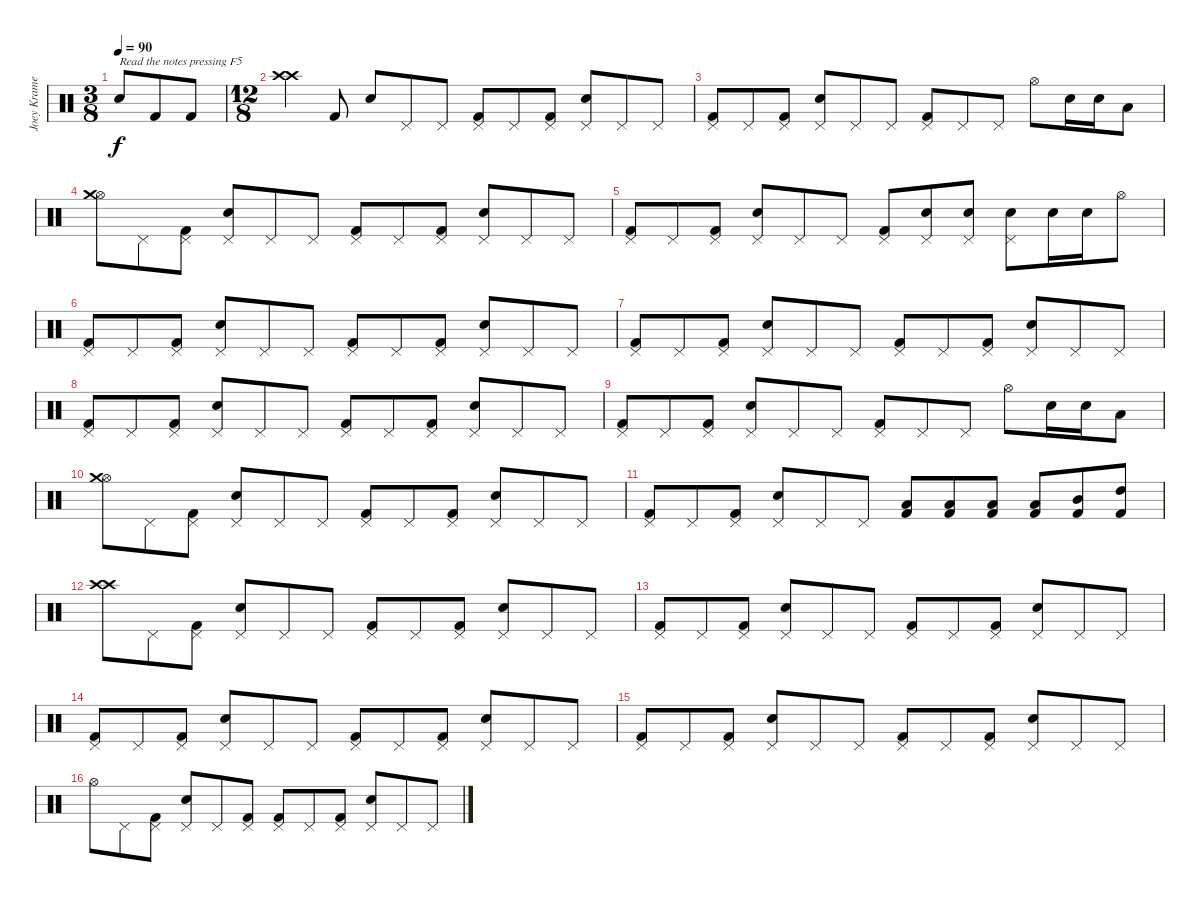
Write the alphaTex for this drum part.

\track ("Joey Kramer" "Joey Krame") {instrument percussion}
\staff {score}
\articulation defaults
\ts (3 8)
\tempo 90
\clef neutral
\ks c "Snare (hit) 2".8{txt "Read the notes pressing F5" dy f} "Kick (hit) 2".8 "Kick (hit) 2".8
|
\ts (12 8)
("Crash high (hit)" "Crash high (hit)").4 "Kick (hit) 2".8 "Snare (hit) 2".8 "Pedal Hi-Hat (hit)".8 "Pedal Hi-Hat (hit)".8 ("Pedal Hi-Hat (hit)" "Kick (hit) 2").8 "Pedal Hi-Hat (hit)".8 ("Pedal Hi-Hat (hit)" "Kick (hit) 2").8 ("Pedal Hi-Hat (hit)" "Snare (hit) 2").8 "Pedal Hi-Hat (hit)".8 "Pedal Hi-Hat (hit)".8 |
("Pedal Hi-Hat (hit)" "Kick (hit) 2").8 "Pedal Hi-Hat (hit)".8 ("Pedal Hi-Hat (hit)" "Kick (hit) 2").8 ("Pedal Hi-Hat (hit)" "Snare (hit) 2").8 "Pedal Hi-Hat (hit)".8 "Pedal Hi-Hat (hit)".8 ("Pedal Hi-Hat (hit)" "Kick (hit) 2").8 "Pedal Hi-Hat (hit)".8 "Pedal Hi-Hat (hit)".8 "Hi-Hat (open)".8 "Electric Snare (hit)".16 "Electric Snare (hit)".16 "Low Tom (hit)".8 |
("Hi-Hat (open)" "Crash medium (hit)").8 "Pedal Hi-Hat (hit)".8 ("Pedal Hi-Hat (hit)" "Kick (hit) 2").8 ("Pedal Hi-Hat (hit)" "Snare (hit) 2").8 "Pedal Hi-Hat (hit)".8 "Pedal Hi-Hat (hit)".8 ("Pedal Hi-Hat (hit)" "Kick (hit) 2").8 "Pedal Hi-Hat (hit)".8 ("Pedal Hi-Hat (hit)" "Kick (hit) 2").8 ("Pedal Hi-Hat (hit)" "Snare (hit) 2").8 "Pedal Hi-Hat (hit)".8 "Pedal Hi-Hat (hit)".8 |
("Pedal Hi-Hat (hit)" "Kick (hit) 2").8 "Pedal Hi-Hat (hit)".8 ("Pedal Hi-Hat (hit)" "Kick (hit) 2").8 ("Pedal Hi-Hat (hit)" "Snare (hit) 2").8 "Pedal Hi-Hat (hit)".8 "Pedal Hi-Hat (hit)".8 ("Pedal Hi-Hat (hit)" "Kick (hit) 2").8 ("Pedal Hi-Hat (hit)" "Snare (hit) 2").8 ("Pedal Hi-Hat (hit)" "Snare (hit) 2").8 ("Pedal Hi-Hat (hit)" "Snare (hit) 2").8 "Snare (hit) 2".16 "Snare (hit) 2".16 "Hi-Hat (open)".8 |
("Pedal Hi-Hat (hit)" "Kick (hit) 2").8 "Pedal Hi-Hat (hit)".8 ("Pedal Hi-Hat (hit)" "Kick (hit) 2").8 ("Pedal Hi-Hat (hit)" "Snare (hit) 2").8 "Pedal Hi-Hat (hit)".8 "Pedal Hi-Hat (hit)".8 ("Pedal Hi-Hat (hit)" "Kick (hit) 2").8 "Pedal Hi-Hat (hit)".8 ("Pedal Hi-Hat (hit)" "Kick (hit) 2").8 ("Pedal Hi-Hat (hit)" "Snare (hit) 2").8 "Pedal Hi-Hat (hit)".8 "Pedal Hi-Hat (hit)".8 |
("Pedal Hi-Hat (hit)" "Kick (hit) 2").8 "Pedal Hi-Hat (hit)".8 ("Pedal Hi-Hat (hit)" "Kick (hit) 2").8 ("Pedal Hi-Hat (hit)" "Snare (hit) 2").8 "Pedal Hi-Hat (hit)".8 "Pedal Hi-Hat (hit)".8 ("Pedal Hi-Hat (hit)" "Kick (hit) 2").8 "Pedal Hi-Hat (hit)".8 ("Pedal Hi-Hat (hit)" "Kick (hit) 2").8 ("Pedal Hi-Hat (hit)" "Snare (hit) 2").8 "Pedal Hi-Hat (hit)".8 "Pedal Hi-Hat (hit)".8 |
("Pedal Hi-Hat (hit)" "Kick (hit) 2").8 "Pedal Hi-Hat (hit)".8 ("Pedal Hi-Hat (hit)" "Kick (hit) 2").8 ("Pedal Hi-Hat (hit)" "Snare (hit) 2").8 "Pedal Hi-Hat (hit)".8 "Pedal Hi-Hat (hit)".8 ("Pedal Hi-Hat (hit)" "Kick (hit) 2").8 "Pedal Hi-Hat (hit)".8 ("Pedal Hi-Hat (hit)" "Kick (hit) 2").8 ("Pedal Hi-Hat (hit)" "Snare (hit) 2").8 "Pedal Hi-Hat (hit)".8 "Pedal Hi-Hat (hit)".8 |
("Pedal Hi-Hat (hit)" "Kick (hit) 2").8 "Pedal Hi-Hat (hit)".8 ("Pedal Hi-Hat (hit)" "Kick (hit) 2").8 ("Pedal Hi-Hat (hit)" "Snare (hit) 2").8 "Pedal Hi-Hat (hit)".8 "Pedal Hi-Hat (hit)".8 ("Pedal Hi-Hat (hit)" "Kick (hit) 2").8 "Pedal Hi-Hat (hit)".8 "Pedal Hi-Hat (hit)".8 "Hi-Hat (open)".8 "Electric Snare (hit)".16 "Electric Snare (hit)".16 "Low Tom (hit)".8 |
("Hi-Hat (open)" "Crash medium (hit)").8 "Pedal Hi-Hat (hit)".8 ("Pedal Hi-Hat (hit)" "Kick (hit) 2").8 ("Pedal Hi-Hat (hit)" "Snare (hit) 2").8 "Pedal Hi-Hat (hit)".8 "Pedal Hi-Hat (hit)".8 ("Pedal Hi-Hat (hit)" "Kick (hit) 2").8 "Pedal Hi-Hat (hit)".8 ("Pedal Hi-Hat (hit)" "Kick (hit) 2").8 ("Pedal Hi-Hat (hit)" "Snare (hit) 2").8 "Pedal Hi-Hat (hit)".8 "Pedal Hi-Hat (hit)".8 |
("Pedal Hi-Hat (hit)" "Kick (hit) 2").8 "Pedal Hi-Hat (hit)".8 ("Pedal Hi-Hat (hit)" "Kick (hit) 2").8 ("Pedal Hi-Hat (hit)" "Snare (hit) 2").8 "Pedal Hi-Hat (hit)".8 "Pedal Hi-Hat (hit)".8 ("Kick (hit) 2" "Low Tom (hit)").8 ("Kick (hit) 2" "Low Tom (hit)").8 ("Kick (hit) 2" "Low Tom (hit)").8 ("Kick (hit) 2" "Low Tom (hit)").8 ("Kick (hit) 2" "Mid Tom (hit)").8 ("Kick (hit) 2" "High Tom (hit)").8 |
("Crash high (hit)" "Crash high (hit)").8 "Pedal Hi-Hat (hit)".8 ("Pedal Hi-Hat (hit)" "Kick (hit) 2").8 ("Pedal Hi-Hat (hit)" "Snare (hit) 2").8 "Pedal Hi-Hat (hit)".8 "Pedal Hi-Hat (hit)".8 ("Pedal Hi-Hat (hit)" "Kick (hit) 2").8 "Pedal Hi-Hat (hit)".8 ("Pedal Hi-Hat (hit)" "Kick (hit) 2").8 ("Pedal Hi-Hat (hit)" "Snare (hit) 2").8 "Pedal Hi-Hat (hit)".8 "Pedal Hi-Hat (hit)".8 |
("Pedal Hi-Hat (hit)" "Kick (hit) 2").8 "Pedal Hi-Hat (hit)".8 ("Pedal Hi-Hat (hit)" "Kick (hit) 2").8 ("Pedal Hi-Hat (hit)" "Snare (hit) 2").8 "Pedal Hi-Hat (hit)".8 "Pedal Hi-Hat (hit)".8 ("Pedal Hi-Hat (hit)" "Kick (hit) 2").8 "Pedal Hi-Hat (hit)".8 ("Pedal Hi-Hat (hit)" "Kick (hit) 2").8 ("Pedal Hi-Hat (hit)" "Snare (hit) 2").8 "Pedal Hi-Hat (hit)".8 "Pedal Hi-Hat (hit)".8 |
("Pedal Hi-Hat (hit)" "Kick (hit) 2").8 "Pedal Hi-Hat (hit)".8 ("Pedal Hi-Hat (hit)" "Kick (hit) 2").8 ("Pedal Hi-Hat (hit)" "Snare (hit) 2").8 "Pedal Hi-Hat (hit)".8 "Pedal Hi-Hat (hit)".8 ("Pedal Hi-Hat (hit)" "Kick (hit) 2").8 "Pedal Hi-Hat (hit)".8 ("Pedal Hi-Hat (hit)" "Kick (hit) 2").8 ("Pedal Hi-Hat (hit)" "Snare (hit) 2").8 "Pedal Hi-Hat (hit)".8 "Pedal Hi-Hat (hit)".8 |
("Pedal Hi-Hat (hit)" "Kick (hit) 2").8 "Pedal Hi-Hat (hit)".8 ("Pedal Hi-Hat (hit)" "Kick (hit) 2").8 ("Pedal Hi-Hat (hit)" "Snare (hit) 2").8 "Pedal Hi-Hat (hit)".8 "Pedal Hi-Hat (hit)".8 ("Pedal Hi-Hat (hit)" "Kick (hit) 2").8 "Pedal Hi-Hat (hit)".8 ("Pedal Hi-Hat (hit)" "Kick (hit) 2").8 ("Pedal Hi-Hat (hit)" "Snare (hit) 2").8 "Pedal Hi-Hat (hit)".8 "Pedal Hi-Hat (hit)".8 |
"Hi-Hat (open)".8 "Pedal Hi-Hat (hit)".8 ("Pedal Hi-Hat (hit)" "Kick (hit) 2").8 ("Pedal Hi-Hat (hit)" "Snare (hit) 2").8 "Pedal Hi-Hat (hit)".8 ("Pedal Hi-Hat (hit)" "Kick (hit) 2").8 ("Pedal Hi-Hat (hit)" "Kick (hit) 2").8 "Pedal Hi-Hat (hit)".8 ("Pedal Hi-Hat (hit)" "Kick (hit) 2").8 ("Pedal Hi-Hat (hit)" "Snare (hit) 2").8 "Pedal Hi-Hat (hit)".8 "Pedal Hi-Hat (hit)".8
